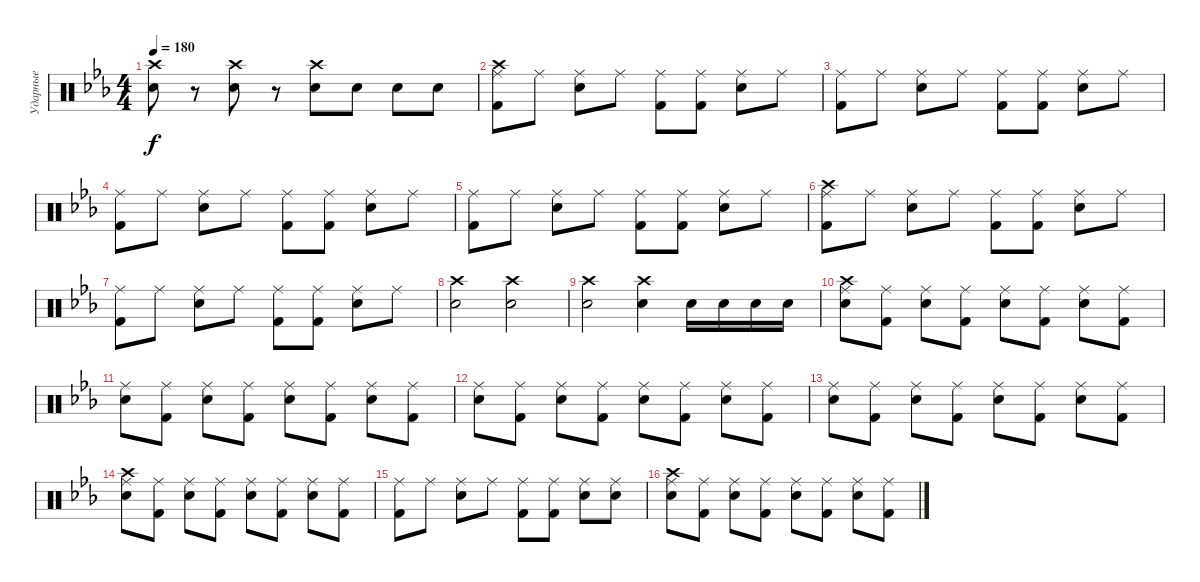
\track ("Ударные" "Ударные") {instrument percussion}
\staff {score}
\articulation defaults
\ts (4 4)
\tempo 180
\clef neutral
\ks eb
("Electric Snare (hit)" "Crash high (hit)").8{dy f} r.8 ("Electric Snare (hit)" "Crash high (hit)").8 r.8 ("Electric Snare (hit)" "Crash high (hit)").8 "Electric Snare (hit)".8 "Electric Snare (hit)".8 "Electric Snare (hit)".8 |
("Ride (middle)" "Kick (hit) 2" "Crash high (hit)").8 "Ride (middle)".8 ("Ride (middle)" "Electric Snare (hit)").8 "Ride (middle)".8 ("Ride (middle)" "Kick (hit) 2").8 ("Ride (middle)" "Kick (hit) 2").8 ("Ride (middle)" "Electric Snare (hit)").8 "Ride (middle)".8 |
("Ride (middle)" "Kick (hit) 2").8 "Ride (middle)".8 ("Ride (middle)" "Electric Snare (hit)").8 "Ride (middle)".8 ("Ride (middle)" "Kick (hit) 2").8 ("Ride (middle)" "Kick (hit) 2").8 ("Ride (middle)" "Electric Snare (hit)").8 "Ride (middle)".8 |
("Ride (middle)" "Kick (hit) 2").8 "Ride (middle)".8 ("Ride (middle)" "Electric Snare (hit)").8 "Ride (middle)".8 ("Ride (middle)" "Kick (hit) 2").8 ("Ride (middle)" "Kick (hit) 2").8 ("Ride (middle)" "Electric Snare (hit)").8 "Ride (middle)".8 |
("Ride (middle)" "Kick (hit) 2").8 "Ride (middle)".8 ("Ride (middle)" "Electric Snare (hit)").8 "Ride (middle)".8 ("Ride (middle)" "Kick (hit) 2").8 ("Ride (middle)" "Kick (hit) 2").8 ("Ride (middle)" "Electric Snare (hit)").8 "Ride (middle)".8 |
("Ride (middle)" "Kick (hit) 2" "Crash high (hit)").8 "Ride (middle)".8 ("Ride (middle)" "Electric Snare (hit)").8 "Ride (middle)".8 ("Ride (middle)" "Kick (hit) 2").8 ("Ride (middle)" "Kick (hit) 2").8 ("Ride (middle)" "Electric Snare (hit)").8 "Ride (middle)".8 |
("Ride (middle)" "Kick (hit) 2").8 "Ride (middle)".8 ("Ride (middle)" "Electric Snare (hit)").8 "Ride (middle)".8 ("Ride (middle)" "Kick (hit) 2").8 ("Ride (middle)" "Kick (hit) 2").8 ("Ride (middle)" "Electric Snare (hit)").8 "Ride (middle)".8 |
("Crash high (hit)" "Electric Snare (hit)").2 ("Crash high (hit)" "Electric Snare (hit)").2 |
("Crash high (hit)" "Electric Snare (hit)").2 ("Crash high (hit)" "Electric Snare (hit)").4 "Electric Snare (hit)".16 "Electric Snare (hit)".16 "Electric Snare (hit)".16 "Electric Snare (hit)".16 |
("Ride (middle)" "Electric Snare (hit)" "Crash high (hit)").8 ("Ride (middle)" "Kick (hit) 2").8 ("Ride (middle)" "Electric Snare (hit)").8 ("Ride (middle)" "Kick (hit) 2").8 ("Ride (middle)" "Electric Snare (hit)").8 ("Ride (middle)" "Kick (hit) 2").8 ("Ride (middle)" "Electric Snare (hit)").8 ("Ride (middle)" "Kick (hit) 2").8 |
("Ride (middle)" "Electric Snare (hit)").8 ("Ride (middle)" "Kick (hit) 2").8 ("Ride (middle)" "Electric Snare (hit)").8 ("Ride (middle)" "Kick (hit) 2").8 ("Ride (middle)" "Electric Snare (hit)").8 ("Ride (middle)" "Kick (hit) 2").8 ("Ride (middle)" "Electric Snare (hit)").8 ("Ride (middle)" "Kick (hit) 2").8 |
("Ride (middle)" "Electric Snare (hit)").8 ("Ride (middle)" "Kick (hit) 2").8 ("Ride (middle)" "Electric Snare (hit)").8 ("Ride (middle)" "Kick (hit) 2").8 ("Ride (middle)" "Electric Snare (hit)").8 ("Ride (middle)" "Kick (hit) 2").8 ("Ride (middle)" "Electric Snare (hit)").8 ("Ride (middle)" "Kick (hit) 2").8 |
("Ride (middle)" "Electric Snare (hit)").8 ("Ride (middle)" "Kick (hit) 2").8 ("Ride (middle)" "Electric Snare (hit)").8 ("Ride (middle)" "Kick (hit) 2").8 ("Ride (middle)" "Electric Snare (hit)").8 ("Ride (middle)" "Kick (hit) 2").8 ("Ride (middle)" "Electric Snare (hit)").8 ("Ride (middle)" "Kick (hit) 2").8 |
("Ride (middle)" "Electric Snare (hit)" "Crash high (hit)").8 ("Ride (middle)" "Kick (hit) 2").8 ("Ride (middle)" "Electric Snare (hit)").8 ("Ride (middle)" "Kick (hit) 2").8 ("Ride (middle)" "Electric Snare (hit)").8 ("Ride (middle)" "Kick (hit) 2").8 ("Ride (middle)" "Electric Snare (hit)").8 ("Ride (middle)" "Kick (hit) 2").8 |
("Ride (middle)" "Kick (hit) 2").8 "Ride (middle)".8 ("Ride (middle)" "Electric Snare (hit)").8 "Ride (middle)".8 ("Ride (middle)" "Kick (hit) 2").8 ("Ride (middle)" "Kick (hit) 2").8 ("Ride (middle)" "Electric Snare (hit)").8 ("Ride (middle)" "Electric Snare (hit)").8 |
("Ride (middle)" "Electric Snare (hit)" "Crash high (hit)").8 ("Ride (middle)" "Kick (hit) 2").8 ("Ride (middle)" "Electric Snare (hit)").8 ("Ride (middle)" "Kick (hit) 2").8 ("Ride (middle)" "Electric Snare (hit)").8 ("Ride (middle)" "Kick (hit) 2").8 ("Ride (middle)" "Electric Snare (hit)").8 ("Ride (middle)" "Kick (hit) 2").8
